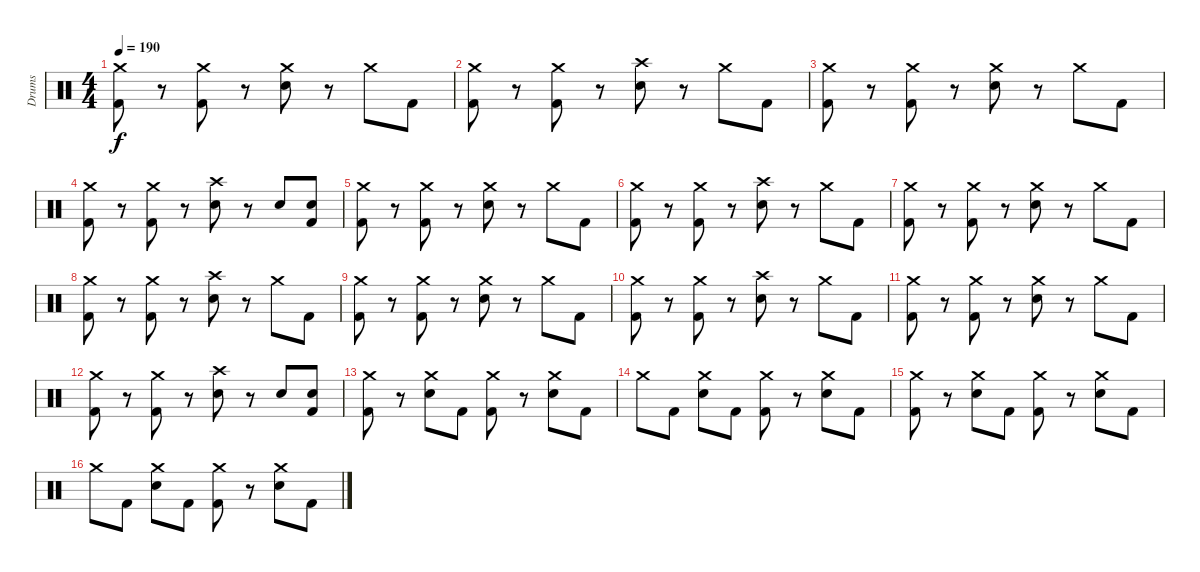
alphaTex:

\track ("Drums" "Drums") {instrument percussion}
\staff {score}
\articulation defaults
\ts (4 4)
\tempo 190
\clef neutral
\ks c
("Crash medium (hit)" "Kick (hit) 2").8{dy f} r.8 ("Crash medium (hit)" "Kick (hit) 2").8 r.8 ("Crash medium (hit)" "Electric Snare (hit)").8 r.8 "Crash medium (hit)".8 "Kick (hit) 2".8 |
("Crash medium (hit)" "Kick (hit) 2").8 r.8 ("Crash medium (hit)" "Kick (hit) 2").8 r.8 ("Crash high (hit)" "Electric Snare (hit)").8 r.8 "Crash medium (hit)".8 "Kick (hit) 2".8 |
("Crash medium (hit)" "Kick (hit) 2").8 r.8 ("Crash medium (hit)" "Kick (hit) 2").8 r.8 ("Crash medium (hit)" "Electric Snare (hit)").8 r.8 "Crash medium (hit)".8 "Kick (hit) 2".8 |
("Crash medium (hit)" "Kick (hit) 2").8 r.8 ("Crash medium (hit)" "Kick (hit) 2").8 r.8 ("Crash high (hit)" "Electric Snare (hit)").8 r.8 "Electric Snare (hit)".8 ("Electric Snare (hit)" "Kick (hit) 2").8 |
("Crash medium (hit)" "Kick (hit) 2").8 r.8 ("Crash medium (hit)" "Kick (hit) 2").8 r.8 ("Crash medium (hit)" "Electric Snare (hit)").8 r.8 "Crash medium (hit)".8 "Kick (hit) 2".8 |
("Crash medium (hit)" "Kick (hit) 2").8 r.8 ("Crash medium (hit)" "Kick (hit) 2").8 r.8 ("Crash high (hit)" "Electric Snare (hit)").8 r.8 "Crash medium (hit)".8 "Kick (hit) 2".8 |
("Crash medium (hit)" "Kick (hit) 2").8 r.8 ("Crash medium (hit)" "Kick (hit) 2").8 r.8 ("Crash medium (hit)" "Electric Snare (hit)").8 r.8 "Crash medium (hit)".8 "Kick (hit) 2".8 |
("Crash medium (hit)" "Kick (hit) 2").8 r.8 ("Crash medium (hit)" "Kick (hit) 2").8 r.8 ("Crash high (hit)" "Electric Snare (hit)").8 r.8 "Crash medium (hit)".8 "Kick (hit) 2".8 |
("Crash medium (hit)" "Kick (hit) 2").8 r.8 ("Crash medium (hit)" "Kick (hit) 2").8 r.8 ("Crash medium (hit)" "Electric Snare (hit)").8 r.8 "Crash medium (hit)".8 "Kick (hit) 2".8 |
("Crash medium (hit)" "Kick (hit) 2").8 r.8 ("Crash medium (hit)" "Kick (hit) 2").8 r.8 ("Crash high (hit)" "Electric Snare (hit)").8 r.8 "Crash medium (hit)".8 "Kick (hit) 2".8 |
("Crash medium (hit)" "Kick (hit) 2").8 r.8 ("Crash medium (hit)" "Kick (hit) 2").8 r.8 ("Crash medium (hit)" "Electric Snare (hit)").8 r.8 "Crash medium (hit)".8 "Kick (hit) 2".8 |
("Crash medium (hit)" "Kick (hit) 2").8 r.8 ("Crash medium (hit)" "Kick (hit) 2").8 r.8 ("Crash high (hit)" "Electric Snare (hit)").8 r.8 "Electric Snare (hit)".8 ("Electric Snare (hit)" "Kick (hit) 2").8 |
("Crash medium (hit)" "Kick (hit) 2").8 r.8 ("Crash medium (hit)" "Electric Snare (hit)").8 "Kick (hit) 2".8 ("Crash medium (hit)" "Kick (hit) 2").8 r.8 ("Crash medium (hit)" "Electric Snare (hit)").8 "Kick (hit) 2".8 |
"Crash medium (hit)".8 "Kick (hit) 2".8 ("Crash medium (hit)" "Electric Snare (hit)").8 "Kick (hit) 2".8 ("Crash medium (hit)" "Kick (hit) 2").8 r.8 ("Crash medium (hit)" "Electric Snare (hit)").8 "Kick (hit) 2".8 |
("Crash medium (hit)" "Kick (hit) 2").8 r.8 ("Crash medium (hit)" "Electric Snare (hit)").8 "Kick (hit) 2".8 ("Crash medium (hit)" "Kick (hit) 2").8 r.8 ("Crash medium (hit)" "Electric Snare (hit)").8 "Kick (hit) 2".8 |
"Crash medium (hit)".8 "Kick (hit) 2".8 ("Crash medium (hit)" "Electric Snare (hit)").8 "Kick (hit) 2".8 ("Crash medium (hit)" "Kick (hit) 2").8 r.8 ("Crash medium (hit)" "Electric Snare (hit)").8 "Kick (hit) 2".8
